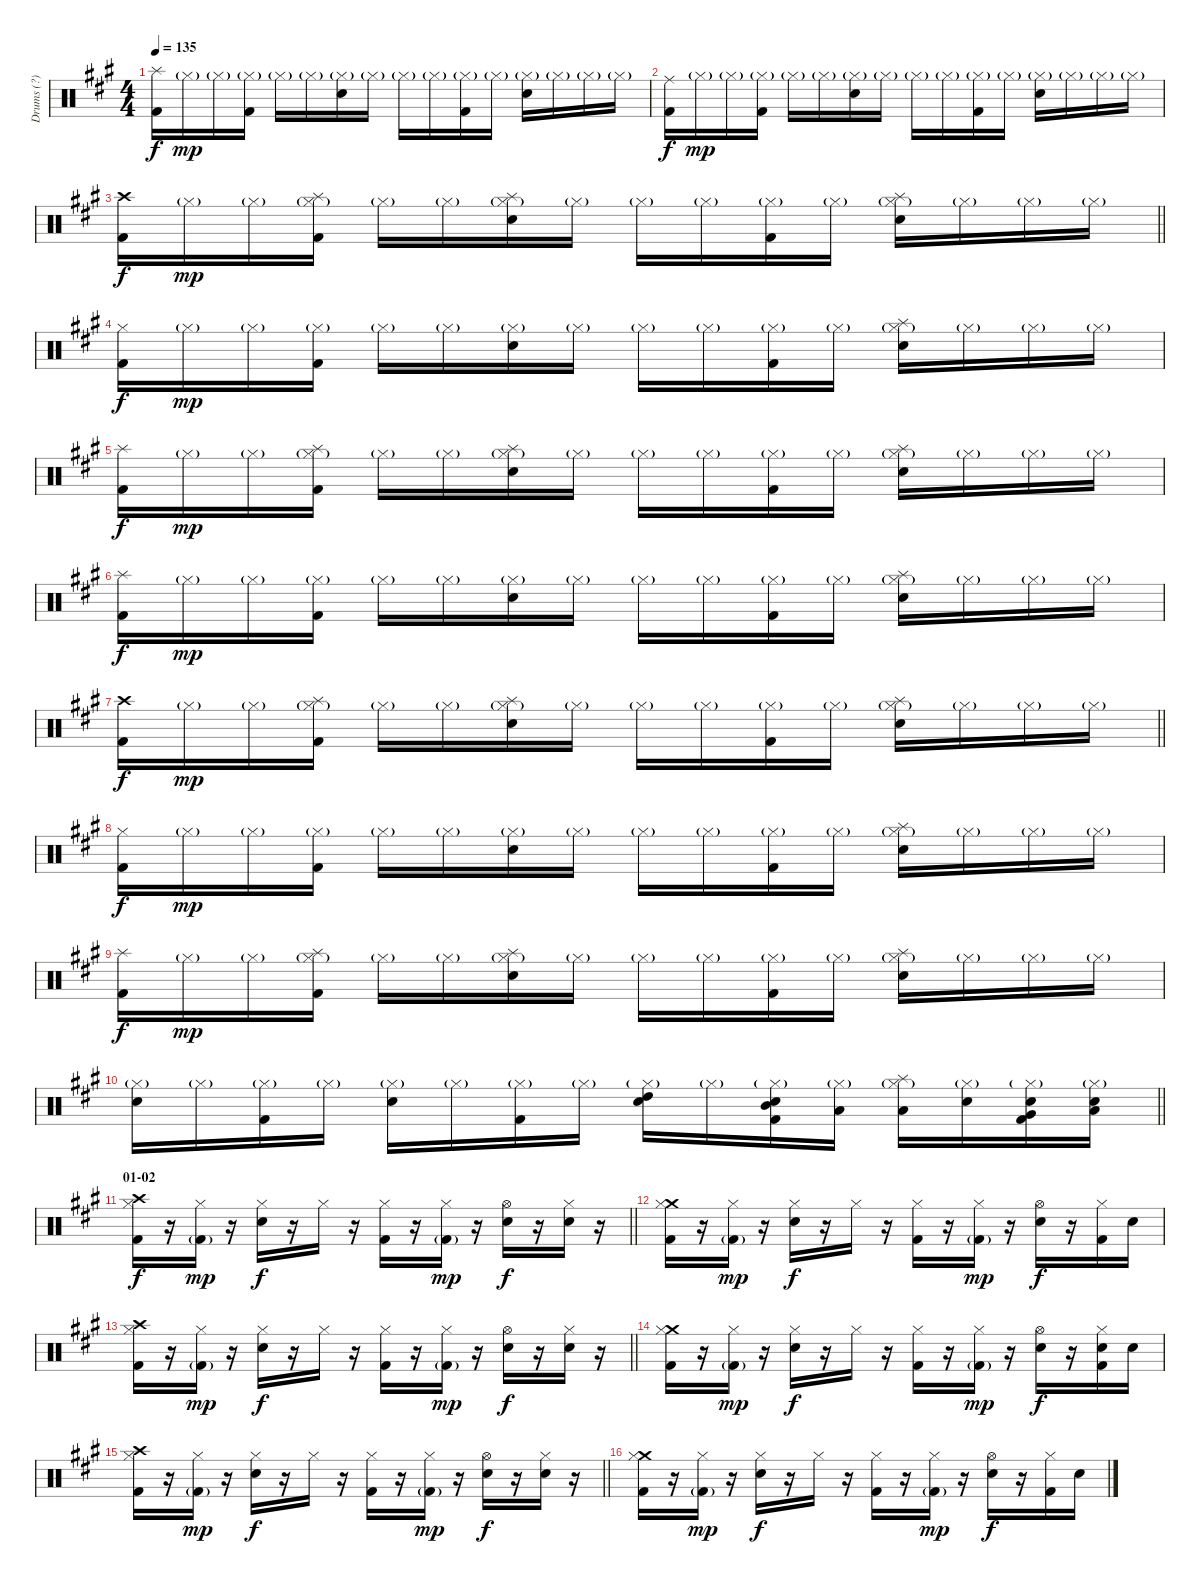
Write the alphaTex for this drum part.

\track ("Drums (?)" "Drums (?)") {instrument percussion}
\staff {score}
\articulation defaults
\ts (4 4)
\tempo 135
\clef neutral
\ks a
("Splash (hit)" "Kick (hit) 2").16{dy f} "Hi-Hat (closed)"{g}.16{dy mp} "Hi-Hat (closed)"{g}.16 ("Hi-Hat (closed)"{g} "Kick (hit) 2").16 "Hi-Hat (closed)"{g}.16 "Hi-Hat (closed)"{g}.16 ("Hi-Hat (closed)"{g} "Electric Snare (hit)").16 "Hi-Hat (closed)"{g}.16 "Hi-Hat (closed)"{g}.16 "Hi-Hat (closed)"{g}.16 ("Hi-Hat (closed)"{g} "Kick (hit) 2").16 "Hi-Hat (closed)"{g}.16 ("Hi-Hat (closed)"{g} "Electric Snare (hit)").16 "Hi-Hat (closed)"{g}.16 "Hi-Hat (closed)"{g}.16 "Hi-Hat (closed)"{g}.16 |
("Ride (middle)" "Kick (hit) 2").16{dy f} "Hi-Hat (closed)"{g}.16{dy mp} "Hi-Hat (closed)"{g}.16 ("Hi-Hat (closed)"{g} "Kick (hit) 2").16 "Hi-Hat (closed)"{g}.16 "Hi-Hat (closed)"{g}.16 ("Hi-Hat (closed)"{g} "Electric Snare (hit)").16 "Hi-Hat (closed)"{g}.16 "Hi-Hat (closed)"{g}.16 "Hi-Hat (closed)"{g}.16 ("Hi-Hat (closed)"{g} "Kick (hit) 2").16 "Hi-Hat (closed)"{g}.16 ("Hi-Hat (closed)"{g} "Electric Snare (hit)").16 "Hi-Hat (closed)"{g}.16 "Hi-Hat (closed)"{g}.16 "Hi-Hat (closed)"{g}.16 |
\barLineRight lightlight
("Crash high (hit)" "Kick (hit) 2").16{dy f} "Hi-Hat (closed)"{g}.16{dy mp} "Hi-Hat (closed)"{g}.16 ("Splash (hit)" "Hi-Hat (closed)"{g} "Kick (hit) 2").16 "Hi-Hat (closed)"{g}.16 "Hi-Hat (closed)"{g}.16 ("Splash (hit)" "Hi-Hat (closed)"{g} "Electric Snare (hit)").16 "Hi-Hat (closed)"{g}.16 "Hi-Hat (closed)"{g}.16 "Hi-Hat (closed)"{g}.16 ("Hi-Hat (closed)"{g} "Kick (hit) 2").16 "Hi-Hat (closed)"{g}.16 ("Splash (hit)" "Hi-Hat (closed)"{g} "Electric Snare (hit)").16 "Hi-Hat (closed)"{g}.16 "Hi-Hat (closed)"{g}.16 "Hi-Hat (closed)"{g}.16 |
("Hi-Hat (closed)" "Kick (hit) 2").16{dy f} "Hi-Hat (closed)"{g}.16{dy mp} "Hi-Hat (closed)"{g}.16 ("Hi-Hat (closed)"{g} "Kick (hit) 2").16 "Hi-Hat (closed)"{g}.16 "Hi-Hat (closed)"{g}.16 ("Hi-Hat (closed)"{g} "Electric Snare (hit)").16 "Hi-Hat (closed)"{g}.16 "Hi-Hat (closed)"{g}.16 "Hi-Hat (closed)"{g}.16 ("Hi-Hat (closed)"{g} "Kick (hit) 2").16 "Hi-Hat (closed)"{g}.16 ("Splash (hit)" "Hi-Hat (closed)"{g} "Electric Snare (hit)").16 "Hi-Hat (closed)"{g}.16 "Hi-Hat (closed)"{g}.16 "Hi-Hat (closed)"{g}.16 |
("Splash (hit)" "Kick (hit) 2").16{dy f} "Hi-Hat (closed)"{g}.16{dy mp} "Hi-Hat (closed)"{g}.16 ("Splash (hit)" "Hi-Hat (closed)"{g} "Kick (hit) 2").16 "Hi-Hat (closed)"{g}.16 "Hi-Hat (closed)"{g}.16 ("Splash (hit)" "Hi-Hat (closed)"{g} "Electric Snare (hit)").16 "Hi-Hat (closed)"{g}.16 "Hi-Hat (closed)"{g}.16 "Hi-Hat (closed)"{g}.16 ("Hi-Hat (closed)"{g} "Kick (hit) 2").16 "Hi-Hat (closed)"{g}.16 ("Splash (hit)" "Hi-Hat (closed)"{g} "Electric Snare (hit)").16 "Hi-Hat (closed)"{g}.16 "Hi-Hat (closed)"{g}.16 "Hi-Hat (closed)"{g}.16 |
("Splash (hit)" "Kick (hit) 2").16{dy f} "Hi-Hat (closed)"{g}.16{dy mp} "Hi-Hat (closed)"{g}.16 ("Hi-Hat (closed)"{g} "Kick (hit) 2").16 "Hi-Hat (closed)"{g}.16 "Hi-Hat (closed)"{g}.16 ("Hi-Hat (closed)"{g} "Electric Snare (hit)").16 "Hi-Hat (closed)"{g}.16 "Hi-Hat (closed)"{g}.16 "Hi-Hat (closed)"{g}.16 ("Hi-Hat (closed)"{g} "Kick (hit) 2").16 "Hi-Hat (closed)"{g}.16 ("Splash (hit)" "Hi-Hat (closed)"{g} "Electric Snare (hit)").16 "Hi-Hat (closed)"{g}.16 "Hi-Hat (closed)"{g}.16 "Hi-Hat (closed)"{g}.16 |
\barLineRight lightlight
("Crash high (hit)" "Kick (hit) 2").16{dy f} "Hi-Hat (closed)"{g}.16{dy mp} "Hi-Hat (closed)"{g}.16 ("Splash (hit)" "Hi-Hat (closed)"{g} "Kick (hit) 2").16 "Hi-Hat (closed)"{g}.16 "Hi-Hat (closed)"{g}.16 ("Splash (hit)" "Hi-Hat (closed)"{g} "Electric Snare (hit)").16 "Hi-Hat (closed)"{g}.16 "Hi-Hat (closed)"{g}.16 "Hi-Hat (closed)"{g}.16 ("Hi-Hat (closed)"{g} "Kick (hit) 2").16 "Hi-Hat (closed)"{g}.16 ("Splash (hit)" "Hi-Hat (closed)"{g} "Electric Snare (hit)").16 "Hi-Hat (closed)"{g}.16 "Hi-Hat (closed)"{g}.16 "Hi-Hat (closed)"{g}.16 |
("Hi-Hat (closed)" "Kick (hit) 2").16{dy f} "Hi-Hat (closed)"{g}.16{dy mp} "Hi-Hat (closed)"{g}.16 ("Hi-Hat (closed)"{g} "Kick (hit) 2").16 "Hi-Hat (closed)"{g}.16 "Hi-Hat (closed)"{g}.16 ("Hi-Hat (closed)"{g} "Electric Snare (hit)").16 "Hi-Hat (closed)"{g}.16 "Hi-Hat (closed)"{g}.16 "Hi-Hat (closed)"{g}.16 ("Hi-Hat (closed)"{g} "Kick (hit) 2").16 "Hi-Hat (closed)"{g}.16 ("Splash (hit)" "Hi-Hat (closed)"{g} "Electric Snare (hit)").16 "Hi-Hat (closed)"{g}.16 "Hi-Hat (closed)"{g}.16 "Hi-Hat (closed)"{g}.16 |
("Splash (hit)" "Kick (hit) 2").16{dy f} "Hi-Hat (closed)"{g}.16{dy mp} "Hi-Hat (closed)"{g}.16 ("Splash (hit)" "Hi-Hat (closed)"{g} "Kick (hit) 2").16 "Hi-Hat (closed)"{g}.16 "Hi-Hat (closed)"{g}.16 ("Splash (hit)" "Hi-Hat (closed)"{g} "Electric Snare (hit)").16 "Hi-Hat (closed)"{g}.16 "Hi-Hat (closed)"{g}.16 "Hi-Hat (closed)"{g}.16 ("Hi-Hat (closed)"{g} "Kick (hit) 2").16 "Hi-Hat (closed)"{g}.16 ("Splash (hit)" "Hi-Hat (closed)"{g} "Electric Snare (hit)").16 "Hi-Hat (closed)"{g}.16 "Hi-Hat (closed)"{g}.16 "Hi-Hat (closed)"{g}.16 |
\barLineRight lightlight
("Hi-Hat (closed)"{g} "Electric Snare (hit)").16 "Hi-Hat (closed)"{g}.16 ("Hi-Hat (closed)"{g} "Kick (hit) 2").16 "Hi-Hat (closed)"{g}.16 ("Hi-Hat (closed)"{g} "Electric Snare (hit)").16 "Hi-Hat (closed)"{g}.16 ("Hi-Hat (closed)"{g} "Kick (hit) 2").16 "Hi-Hat (closed)"{g}.16 ("Hi-Hat (closed)"{g} "High Tom (hit)" "Electric Snare (hit)").16 "Hi-Hat (closed)"{g}.16 ("Hi-Hat (closed)"{g} "Mid Tom (hit)" "Electric Snare (hit)" "Kick (hit) 2").16 ("Hi-Hat (closed)"{g} "Low Tom (hit)").16 ("Splash (hit)" "Hi-Hat (closed)"{g} "Low Tom (hit)").16 ("Hi-Hat (closed)"{g} "Electric Snare (hit)").16 ("Hi-Hat (closed)"{g} "Very Low Tom (hit)" "Electric Snare (hit)" "Kick (hit) 2").16 ("Hi-Hat (closed)"{g} "Low Floor Tom (hit)" "Electric Snare (hit)").16 |
\section ("" "01-02")
\barLineRight lightlight
("Crash high (hit)" "Hi-Hat (closed)" "Kick (hit) 2").16{dy f} r.16 ("Hi-Hat (closed)" "Kick (hit) 2"{g}).16{dy mp} r.16 ("Hi-Hat (closed)" "Electric Snare (hit)").16{dy f} r.16 "Hi-Hat (closed)".16 r.16 ("Hi-Hat (closed)" "Kick (hit) 2").16 r.16 ("Hi-Hat (closed)" "Kick (hit) 2"{g}).16{dy mp} r.16 ("Hi-Hat (open)" "Electric Snare (hit)").16{dy f} r.16 ("Hi-Hat (closed)" "Hand Clap (hit)").16 r.16 |
("Crash medium (hit)" "Hi-Hat (closed)" "Kick (hit) 2").16 r.16 ("Hi-Hat (closed)" "Kick (hit) 2"{g}).16{dy mp} r.16 ("Hi-Hat (closed)" "Electric Snare (hit)").16{dy f} r.16 "Hi-Hat (closed)".16 r.16 ("Hi-Hat (closed)" "Kick (hit) 2").16 r.16 ("Hi-Hat (closed)" "Kick (hit) 2"{g}).16{dy mp} r.16 ("Hi-Hat (open)" "Electric Snare (hit)").16{dy f} r.16 ("Hi-Hat (closed)" "Kick (hit) 2").16 "Hand Clap (hit)".16 |
\barLineRight lightlight
("Crash high (hit)" "Hi-Hat (closed)" "Kick (hit) 2").16 r.16 ("Hi-Hat (closed)" "Kick (hit) 2"{g}).16{dy mp} r.16 ("Hi-Hat (closed)" "Electric Snare (hit)").16{dy f} r.16 "Hi-Hat (closed)".16 r.16 ("Hi-Hat (closed)" "Kick (hit) 2").16 r.16 ("Hi-Hat (closed)" "Kick (hit) 2"{g}).16{dy mp} r.16 ("Hi-Hat (open)" "Electric Snare (hit)").16{dy f} r.16 ("Hi-Hat (closed)" "Hand Clap (hit)").16 r.16 |
("Crash medium (hit)" "Hi-Hat (closed)" "Kick (hit) 2").16 r.16 ("Hi-Hat (closed)" "Kick (hit) 2"{g}).16{dy mp} r.16 ("Hi-Hat (closed)" "Electric Snare (hit)").16{dy f} r.16 "Hi-Hat (closed)".16 r.16 ("Hi-Hat (closed)" "Kick (hit) 2").16 r.16 ("Hi-Hat (closed)" "Kick (hit) 2"{g}).16{dy mp} r.16 ("Hi-Hat (open)" "Electric Snare (hit)").16{dy f} r.16 ("Hi-Hat (closed)" "Electric Snare (hit)" "Kick (hit) 2").16 "Electric Snare (hit)".16 |
\barLineRight lightlight
("Crash high (hit)" "Hi-Hat (closed)" "Kick (hit) 2").16 r.16 ("Hi-Hat (closed)" "Kick (hit) 2"{g}).16{dy mp} r.16 ("Hi-Hat (closed)" "Electric Snare (hit)").16{dy f} r.16 "Hi-Hat (closed)".16 r.16 ("Hi-Hat (closed)" "Kick (hit) 2").16 r.16 ("Hi-Hat (closed)" "Kick (hit) 2"{g}).16{dy mp} r.16 ("Hi-Hat (open)" "Electric Snare (hit)").16{dy f} r.16 ("Hi-Hat (closed)" "Hand Clap (hit)").16 r.16 |
("Crash medium (hit)" "Hi-Hat (closed)" "Kick (hit) 2").16 r.16 ("Hi-Hat (closed)" "Kick (hit) 2"{g}).16{dy mp} r.16 ("Hi-Hat (closed)" "Electric Snare (hit)").16{dy f} r.16 "Hi-Hat (closed)".16 r.16 ("Hi-Hat (closed)" "Kick (hit) 2").16 r.16 ("Hi-Hat (closed)" "Kick (hit) 2"{g}).16{dy mp} r.16 ("Hi-Hat (open)" "Electric Snare (hit)").16{dy f} r.16 ("Hi-Hat (closed)" "Kick (hit) 2").16 "Hand Clap (hit)".16
